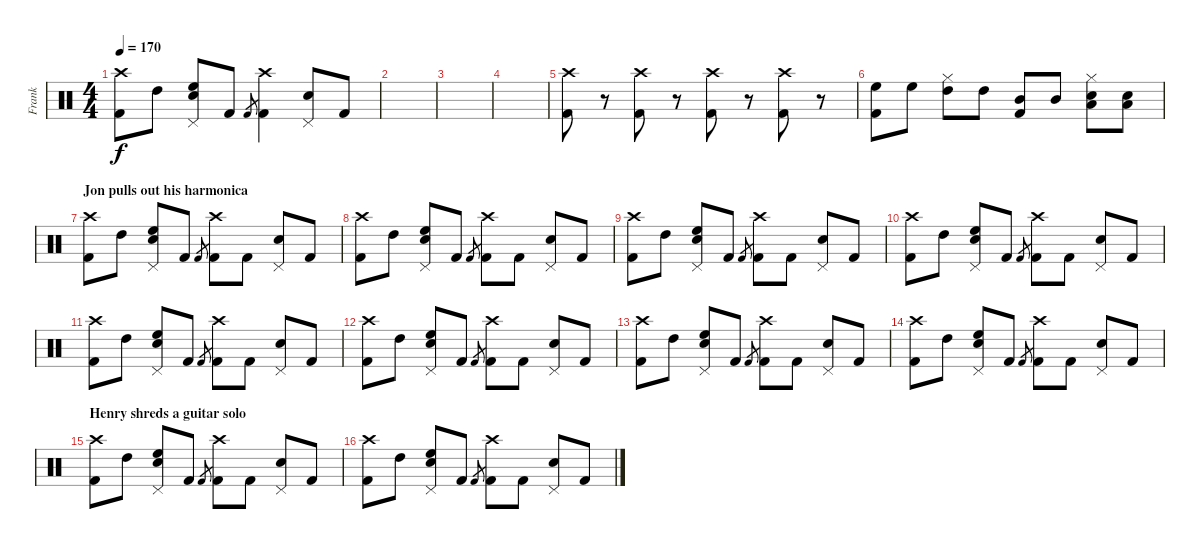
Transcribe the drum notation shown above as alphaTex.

\track ("Frank" "Frank") {instrument percussion}
\staff {score}
\articulation defaults
\ts (4 4)
\tempo 170
\clef neutral
\ks c
("Crash high (hit)" "Kick (hit) 2").8{dy f} "High Tom (hit)".8 ("Pedal Hi-Hat (hit)" "High Floor Tom (hit)" "Snare (hit) 2").8 "Kick (hit) 2".8 "Kick (hit) 2".8{gr} ("Crash high (hit)" "Kick (hit) 2").4 ("Pedal Hi-Hat (hit)" "Snare (hit) 2").8 "Kick (hit) 2".8 |
|
|
|
("Crash high (hit)" "Kick (hit) 2").8 r.8 ("Crash high (hit)" "Kick (hit) 2").8 r.8 ("Crash high (hit)" "Kick (hit) 2").8 r.8 ("Crash high (hit)" "Kick (hit) 2").8 r.8 |
("Kick (hit) 2" "High Floor Tom (hit)").8 "High Floor Tom (hit)".8 ("High Tom (hit)" "Hi-Hat (closed)").8 "High Tom (hit)".8 ("Kick (hit) 2" "Mid Tom (hit)").8 "Mid Tom (hit)".8 ("Snare (hit) 2" "Low Tom (hit)" "Hi-Hat (closed)").8 ("Snare (hit) 2" "Low Tom (hit)").8 |
\section ("" "Jon pulls out his harmonica")
("Crash high (hit)" "Kick (hit) 2").8 "High Tom (hit)".8 ("Pedal Hi-Hat (hit)" "High Floor Tom (hit)" "Snare (hit) 2").8 "Kick (hit) 2".8 "Kick (hit) 2".8{gr} ("Crash high (hit)" "Kick (hit) 2").8 "Kick (hit) 2".8 ("Pedal Hi-Hat (hit)" "Snare (hit) 2").8 "Kick (hit) 2".8 |
("Crash high (hit)" "Kick (hit) 2").8 "High Tom (hit)".8 ("Pedal Hi-Hat (hit)" "High Floor Tom (hit)" "Snare (hit) 2").8 "Kick (hit) 2".8 "Kick (hit) 2".8{gr} ("Crash high (hit)" "Kick (hit) 2").8 "Kick (hit) 2".8 ("Pedal Hi-Hat (hit)" "Snare (hit) 2").8 "Kick (hit) 2".8 |
("Crash high (hit)" "Kick (hit) 2").8 "High Tom (hit)".8 ("Pedal Hi-Hat (hit)" "High Floor Tom (hit)" "Snare (hit) 2").8 "Kick (hit) 2".8 "Kick (hit) 2".8{gr} ("Crash high (hit)" "Kick (hit) 2").8 "Kick (hit) 2".8 ("Pedal Hi-Hat (hit)" "Snare (hit) 2").8 "Kick (hit) 2".8 |
("Crash high (hit)" "Kick (hit) 2").8 "High Tom (hit)".8 ("Pedal Hi-Hat (hit)" "High Floor Tom (hit)" "Snare (hit) 2").8 "Kick (hit) 2".8 "Kick (hit) 2".8{gr} ("Crash high (hit)" "Kick (hit) 2").8 "Kick (hit) 2".8 ("Pedal Hi-Hat (hit)" "Snare (hit) 2").8 "Kick (hit) 2".8 |
("Crash high (hit)" "Kick (hit) 2").8 "High Tom (hit)".8 ("Pedal Hi-Hat (hit)" "High Floor Tom (hit)" "Snare (hit) 2").8 "Kick (hit) 2".8 "Kick (hit) 2".8{gr} ("Crash high (hit)" "Kick (hit) 2").8 "Kick (hit) 2".8 ("Pedal Hi-Hat (hit)" "Snare (hit) 2").8 "Kick (hit) 2".8 |
("Crash high (hit)" "Kick (hit) 2").8 "High Tom (hit)".8 ("Pedal Hi-Hat (hit)" "High Floor Tom (hit)" "Snare (hit) 2").8 "Kick (hit) 2".8 "Kick (hit) 2".8{gr} ("Crash high (hit)" "Kick (hit) 2").8 "Kick (hit) 2".8 ("Pedal Hi-Hat (hit)" "Snare (hit) 2").8 "Kick (hit) 2".8 |
("Crash high (hit)" "Kick (hit) 2").8 "High Tom (hit)".8 ("Pedal Hi-Hat (hit)" "High Floor Tom (hit)" "Snare (hit) 2").8 "Kick (hit) 2".8 "Kick (hit) 2".8{gr} ("Crash high (hit)" "Kick (hit) 2").8 "Kick (hit) 2".8 ("Pedal Hi-Hat (hit)" "Snare (hit) 2").8 "Kick (hit) 2".8 |
("Crash high (hit)" "Kick (hit) 2").8 "High Tom (hit)".8 ("Pedal Hi-Hat (hit)" "High Floor Tom (hit)" "Snare (hit) 2").8 "Kick (hit) 2".8 "Kick (hit) 2".8{gr} ("Crash high (hit)" "Kick (hit) 2").8 "Kick (hit) 2".8 ("Pedal Hi-Hat (hit)" "Snare (hit) 2").8 "Kick (hit) 2".8 |
\section ("" "Henry shreds a guitar solo")
("Crash high (hit)" "Kick (hit) 2").8 "High Tom (hit)".8 ("Pedal Hi-Hat (hit)" "High Floor Tom (hit)" "Snare (hit) 2").8 "Kick (hit) 2".8 "Kick (hit) 2".8{gr} ("Crash high (hit)" "Kick (hit) 2").8 "Kick (hit) 2".8 ("Pedal Hi-Hat (hit)" "Snare (hit) 2").8 "Kick (hit) 2".8 |
("Crash high (hit)" "Kick (hit) 2").8 "High Tom (hit)".8 ("Pedal Hi-Hat (hit)" "High Floor Tom (hit)" "Snare (hit) 2").8 "Kick (hit) 2".8 "Kick (hit) 2".8{gr} ("Crash high (hit)" "Kick (hit) 2").8 "Kick (hit) 2".8 ("Pedal Hi-Hat (hit)" "Snare (hit) 2").8 "Kick (hit) 2".8
